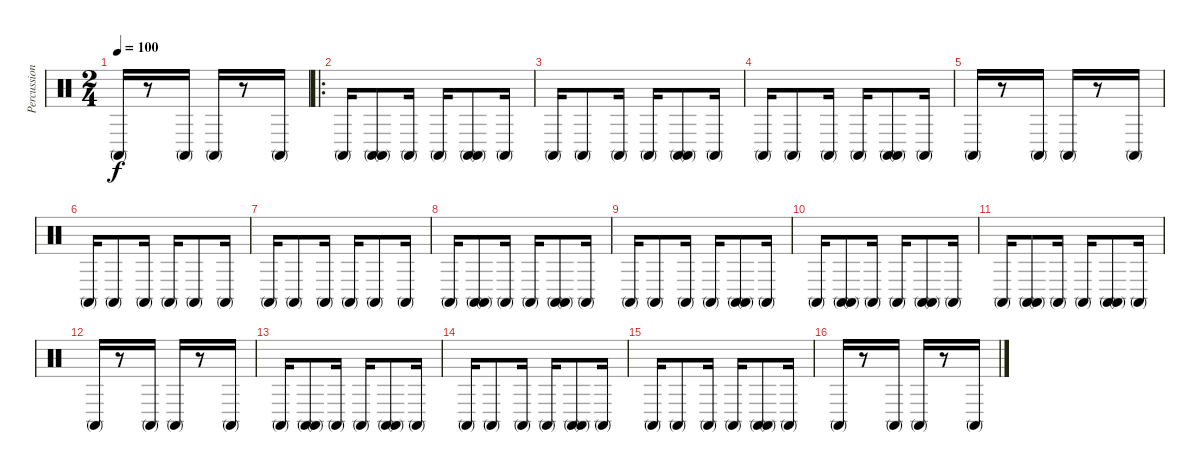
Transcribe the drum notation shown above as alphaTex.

\track ("Percussion" "Percussion") {instrument percussion}
\staff {score}
\articulation defaults
\ts (2 4)
\tempo 100
\clef neutral
\ks c "Conga high (mute)".16{dy f}
r.8 "Conga high (mute)".16 "Conga high (mute)".16 r.8 "Conga high (mute)".16 |
\ro "Conga high (mute)".16
("Conga high (mute)" "Conga high (mute)").8 "Conga high (mute)".16 "Conga high (mute)".16 ("Conga high (mute)" "Conga high (mute)").8 "Conga high (mute)".16 |
"Conga high (mute)".16 "Conga high (mute)".8 "Conga high (mute)".16 "Conga high (mute)".16 ("Conga high (mute)" "Conga high (mute)").8 "Conga high (mute)".16 |
"Conga high (mute)".16 "Conga high (mute)".8 "Conga high (mute)".16 "Conga high (mute)".16 ("Conga high (mute)" "Conga high (mute)").8 "Conga high (mute)".16 |
"Conga high (mute)".16 r.8 "Conga high (mute)".16 "Conga high (mute)".16 r.8 "Conga high (mute)".16 |
"Conga high (mute)".16 "Conga high (mute)".8 "Conga high (mute)".16 "Conga high (mute)".16 "Conga high (mute)".8 "Conga high (mute)".16 |
"Conga high (mute)".16 "Conga high (mute)".8 "Conga high (mute)".16 "Conga high (mute)".16 "Conga high (mute)".8 "Conga high (mute)".16 |
"Conga high (mute)".16 ("Conga high (mute)" "Conga high (mute)").8 "Conga high (mute)".16 "Conga high (mute)".16 ("Conga high (mute)" "Conga high (mute)").8 "Conga high (mute)".16 |
"Conga high (mute)".16 "Conga high (mute)".8 "Conga high (mute)".16 "Conga high (mute)".16 ("Conga high (mute)" "Conga high (mute)").8 "Conga high (mute)".16 |
"Conga high (mute)".16 ("Conga high (mute)" "Conga high (mute)").8 "Conga high (mute)".16 "Conga high (mute)".16 ("Conga high (mute)" "Conga high (mute)").8 "Conga high (mute)".16 |
"Conga high (mute)".16 ("Conga high (mute)" "Conga high (mute)").8 "Conga high (mute)".16 "Conga high (mute)".16 ("Conga high (mute)" "Conga high (mute)").8 "Conga high (mute)".16 |
"Conga high (mute)".16 r.8 "Conga high (mute)".16 "Conga high (mute)".16 r.8 "Conga high (mute)".16 |
"Conga high (mute)".16 ("Conga high (mute)" "Conga high (mute)").8 "Conga high (mute)".16 "Conga high (mute)".16 ("Conga high (mute)" "Conga high (mute)").8 "Conga high (mute)".16 |
"Conga high (mute)".16 "Conga high (mute)".8 "Conga high (mute)".16 "Conga high (mute)".16 ("Conga high (mute)" "Conga high (mute)").8 "Conga high (mute)".16 |
"Conga high (mute)".16 "Conga high (mute)".8 "Conga high (mute)".16 "Conga high (mute)".16 ("Conga high (mute)" "Conga high (mute)").8 "Conga high (mute)".16 |
"Conga high (mute)".16 r.8 "Conga high (mute)".16 "Conga high (mute)".16 r.8 "Conga high (mute)".16
